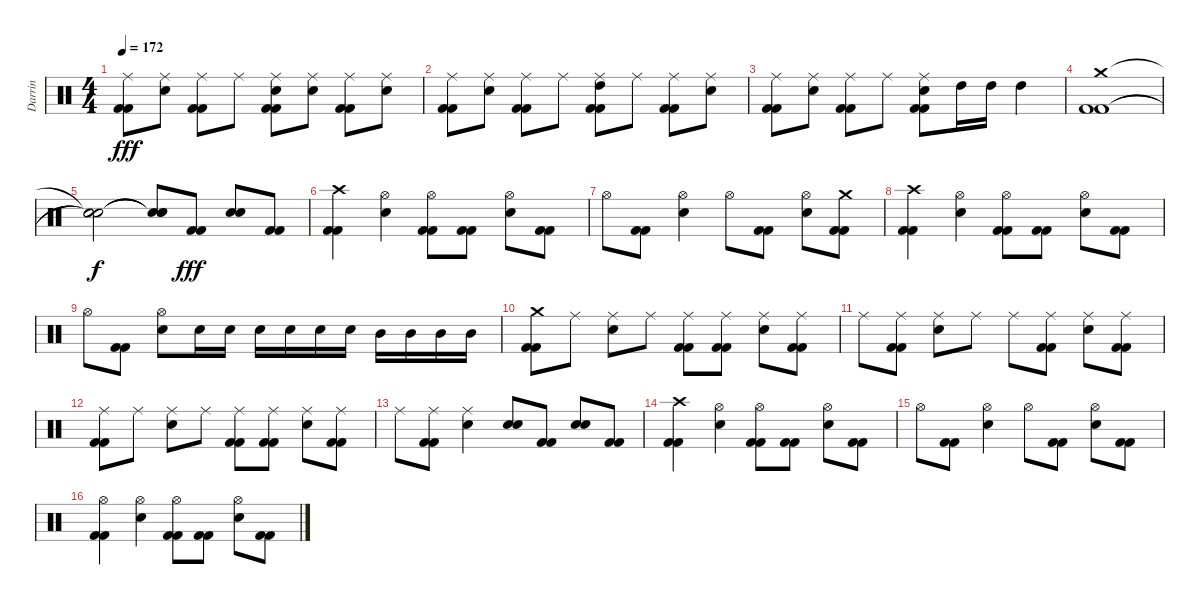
\track ("Darrin" "Darrin") {instrument percussion}
\staff {score}
\articulation defaults
\ts (4 4)
\tempo 172
\clef neutral
\ks c
("Ride (middle)" "Kick (hit) 2" "Kick (hit) 2").8{dy fff} ("Ride (middle)" "Snare (hit) 2").8 ("Ride (middle)" "Kick (hit) 2" "Kick (hit) 2").8 "Ride (middle)".8 ("Ride (middle)" "Snare (hit) 2" "Kick (hit) 2" "Kick (hit) 2").8 ("Ride (middle)" "Snare (hit) 2").8 ("Ride (middle)" "Kick (hit) 2" "Kick (hit) 2").8 ("Ride (middle)" "Snare (hit) 2").8 |
("Ride (middle)" "Kick (hit) 2" "Kick (hit) 2").8 ("Ride (middle)" "Snare (hit) 2").8 ("Ride (middle)" "Kick (hit) 2" "Kick (hit) 2").8 "Ride (middle)".8 ("Ride (middle)" "High Tom (hit)" "Kick (hit) 2" "Kick (hit) 2").8 "Ride (middle)".8 ("Ride (middle)" "Kick (hit) 2" "Kick (hit) 2").8 ("Ride (middle)" "Snare (hit) 2").8 |
("Ride (middle)" "Kick (hit) 2" "Kick (hit) 2").8 ("Ride (middle)" "Snare (hit) 2").8 ("Ride (middle)" "Kick (hit) 2" "Kick (hit) 2").8 "Ride (middle)".8 ("Ride (middle)" "Snare (hit) 2" "Kick (hit) 2" "Kick (hit) 2").8 "High Tom (hit)".16 "High Tom (hit)".16 "High Tom (hit)".4 |
("Crash medium (hit)" "Kick (hit) 2" "Kick (hit) 2").1 |
("Snare (hit)"{t} "Snare (hit)"{t} "Snare (hit)"{t}).2{dy f} ("Snare (hit)"{t} "Snare (hit)"{t} "Snare (hit)"{t}).8 ("Kick (hit) 2" "Kick (hit) 2").8{dy fff} ("Snare (hit) 2" "Snare (hit) 2").8 ("Kick (hit) 2" "Kick (hit) 2").8 |
("Crash high (hit)" "Kick (hit) 2" "Kick (hit) 2").4 ("Hi-Hat (open)" "Snare (hit) 2").4 ("Hi-Hat (open)" "Kick (hit) 2" "Kick (hit) 2").8 ("Kick (hit) 2" "Kick (hit) 2").8 ("Hi-Hat (open)" "Snare (hit) 2").8 ("Kick (hit) 2" "Kick (hit) 2").8 |
"Hi-Hat (open)".8 ("Kick (hit) 2" "Kick (hit) 2").8 ("Hi-Hat (open)" "Snare (hit) 2").4 "Hi-Hat (open)".8 ("Kick (hit) 2" "Kick (hit) 2").8 ("Hi-Hat (open)" "Snare (hit) 2").8 ("Crash medium (hit)" "Kick (hit) 2" "Kick (hit) 2").8 |
("Crash high (hit)" "Kick (hit) 2" "Kick (hit) 2").4 ("Hi-Hat (open)" "Snare (hit) 2").4 ("Hi-Hat (open)" "Kick (hit) 2" "Kick (hit) 2").8 ("Kick (hit) 2" "Kick (hit) 2").8 ("Hi-Hat (open)" "Snare (hit) 2").8 ("Kick (hit) 2" "Kick (hit) 2").8 |
"Hi-Hat (open)".8 ("Kick (hit) 2" "Kick (hit) 2").8 ("Hi-Hat (open)" "Snare (hit) 2").8 "Snare (hit) 2".16 "Snare (hit) 2".16 "Snare (hit) 2".16 "Snare (hit) 2".16 "Snare (hit) 2".16 "Snare (hit) 2".16 "Mid Tom (hit)".16 "Mid Tom (hit)".16 "Mid Tom (hit)".16 "Mid Tom (hit)".16 |
("Crash medium (hit)" "Kick (hit) 2" "Kick (hit) 2").8 "Ride (middle)".8 ("Ride (middle)" "Snare (hit) 2").8 "Ride (middle)".8 ("Ride (middle)" "Kick (hit) 2" "Kick (hit) 2").8 ("Ride (middle)" "Kick (hit) 2" "Kick (hit) 2").8 ("Ride (middle)" "Snare (hit) 2").8 ("Ride (middle)" "Kick (hit) 2" "Kick (hit) 2").8 |
"Ride (middle)".8 ("Ride (middle)" "Kick (hit) 2" "Kick (hit) 2").8 ("Ride (middle)" "Snare (hit) 2").8 "Ride (middle)".8 "Ride (middle)".8 ("Ride (middle)" "Kick (hit) 2" "Kick (hit) 2").8 ("Ride (middle)" "Snare (hit) 2").8 ("Ride (middle)" "Kick (hit) 2" "Kick (hit) 2").8 |
("Ride (middle)" "Kick (hit) 2" "Kick (hit) 2").8 "Ride (middle)".8 ("Ride (middle)" "Snare (hit) 2").8 "Ride (middle)".8 ("Ride (middle)" "Kick (hit) 2" "Kick (hit) 2").8 ("Ride (middle)" "Kick (hit) 2" "Kick (hit) 2").8 ("Ride (middle)" "Snare (hit) 2").8 ("Ride (middle)" "Kick (hit) 2" "Kick (hit) 2").8 |
"Ride (middle)".8 ("Ride (middle)" "Kick (hit) 2" "Kick (hit) 2").8 ("Ride (middle)" "Snare (hit) 2").4 ("Snare (hit) 2" "Snare (hit) 2").8 ("Kick (hit) 2" "Kick (hit) 2").8 ("Snare (hit) 2" "Snare (hit) 2").8 ("Kick (hit) 2" "Kick (hit) 2").8 |
("Crash high (hit)" "Kick (hit) 2" "Kick (hit) 2").4 ("Hi-Hat (open)" "Snare (hit) 2").4 ("Hi-Hat (open)" "Kick (hit) 2" "Kick (hit) 2").8 ("Kick (hit) 2" "Kick (hit) 2").8 ("Hi-Hat (open)" "Snare (hit) 2").8 ("Kick (hit) 2" "Kick (hit) 2").8 |
"Hi-Hat (open)".8 ("Kick (hit) 2" "Kick (hit) 2").8 ("Hi-Hat (open)" "Snare (hit) 2").4 "Hi-Hat (open)".8 ("Kick (hit) 2" "Kick (hit) 2").8 ("Hi-Hat (open)" "Snare (hit) 2").8 ("Kick (hit) 2" "Kick (hit) 2").8 |
("Hi-Hat (open)" "Kick (hit) 2" "Kick (hit) 2").4 ("Hi-Hat (open)" "Snare (hit) 2").4 ("Hi-Hat (open)" "Kick (hit) 2" "Kick (hit) 2").8 ("Kick (hit) 2" "Kick (hit) 2").8 ("Hi-Hat (open)" "Snare (hit) 2").8 ("Kick (hit) 2" "Kick (hit) 2").8
